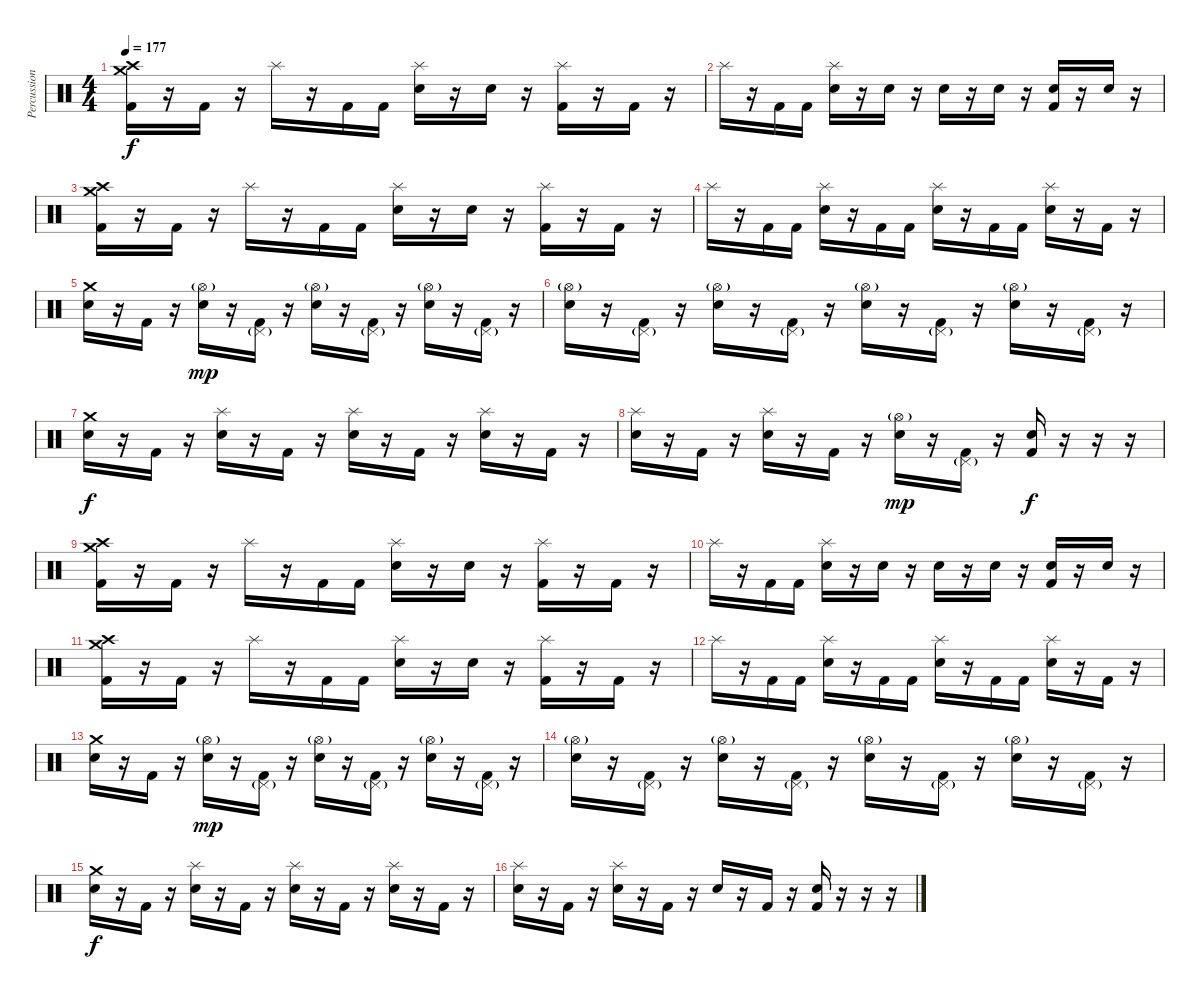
\track ("Percussion" "Percussion") {instrument percussion}
\staff {score}
\articulation defaults
\ts (4 4)
\section ("" "")
\tempo 177
\clef neutral
\ks c
("Crash medium (hit)" "Crash high (hit)" "Kick (hit) 2").16{dy f} r.16 "Kick (hit) 2".16 r.16 "Splash (hit)".16 r.16 "Kick (hit) 2".16 "Kick (hit) 2".16 ("Splash (hit)" "Electric Snare (hit)").16 r.16 "Electric Snare (hit)".16 r.16 ("Splash (hit)" "Kick (hit) 2").16 r.16 "Kick (hit) 2".16 r.16 |
"Splash (hit)".16 r.16 "Kick (hit) 2".16 "Kick (hit) 2".16 ("Splash (hit)" "Electric Snare (hit)").16 r.16 "Electric Snare (hit)".16 r.16 "Electric Snare (hit)".16 r.16 "Electric Snare (hit)".16 r.16 ("Electric Snare (hit)" "Kick (hit) 2").16 r.16 "Electric Snare (hit)".16 r.16 |
("Crash medium (hit)" "Crash high (hit)" "Kick (hit) 2").16 r.16 "Kick (hit) 2".16 r.16 "Splash (hit)".16 r.16 "Kick (hit) 2".16 "Kick (hit) 2".16 ("Splash (hit)" "Electric Snare (hit)").16 r.16 "Electric Snare (hit)".16 r.16 ("Splash (hit)" "Kick (hit) 2").16 r.16 "Kick (hit) 2".16 r.16 |
"Splash (hit)".16 r.16 "Kick (hit) 2".16 "Kick (hit) 2".16 ("Splash (hit)" "Electric Snare (hit)").16 r.16 "Kick (hit) 2".16 "Kick (hit) 2".16 ("Splash (hit)" "Electric Snare (hit)").16 r.16 "Kick (hit) 2".16 "Kick (hit) 2".16 ("Splash (hit)" "Electric Snare (hit)").16 r.16 "Kick (hit) 2".16 r.16 |
("Crash medium (hit)" "Electric Snare (hit)").16 r.16 "Kick (hit) 2".16 r.16 ("Hi-Hat (open)"{g} "Electric Snare (hit)").16{dy mp} r.16 ("Pedal Hi-Hat (hit)"{g} "Kick (hit) 2").16 r.16 ("Hi-Hat (open)"{g} "Electric Snare (hit)").16 r.16 ("Pedal Hi-Hat (hit)"{g} "Kick (hit) 2").16 r.16 ("Hi-Hat (open)"{g} "Electric Snare (hit)").16 r.16 ("Pedal Hi-Hat (hit)"{g} "Kick (hit) 2").16 r.16 |
("Hi-Hat (open)"{g} "Electric Snare (hit)").16 r.16 ("Pedal Hi-Hat (hit)"{g} "Kick (hit) 2").16 r.16 ("Hi-Hat (open)"{g} "Electric Snare (hit)").16 r.16 ("Pedal Hi-Hat (hit)"{g} "Kick (hit) 2").16 r.16 ("Hi-Hat (open)"{g} "Electric Snare (hit)").16 r.16 ("Pedal Hi-Hat (hit)"{g} "Kick (hit) 2").16 r.16 ("Hi-Hat (open)"{g} "Electric Snare (hit)").16 r.16 ("Pedal Hi-Hat (hit)"{g} "Kick (hit) 2").16 r.16 |
("Crash medium (hit)" "Electric Snare (hit)").16{dy f} r.16 "Kick (hit) 2".16 r.16 ("Splash (hit)" "Electric Snare (hit)").16 r.16 "Kick (hit) 2".16 r.16 ("Splash (hit)" "Electric Snare (hit)").16 r.16 "Kick (hit) 2".16 r.16 ("Splash (hit)" "Electric Snare (hit)").16 r.16 "Kick (hit) 2".16 r.16 |
("Splash (hit)" "Electric Snare (hit)").16 r.16 "Kick (hit) 2".16 r.16 ("Splash (hit)" "Electric Snare (hit)").16 r.16 "Kick (hit) 2".16 r.16 ("Hi-Hat (open)"{g} "Electric Snare (hit)").16{dy mp} r.16 ("Pedal Hi-Hat (hit)"{g} "Kick (hit) 2").16 r.16 ("Electric Snare (hit)" "Kick (hit) 2").16{dy f} r.16 r.16 r.16 |
("Crash medium (hit)" "Crash high (hit)" "Kick (hit) 2").16 r.16 "Kick (hit) 2".16 r.16 "Splash (hit)".16 r.16 "Kick (hit) 2".16 "Kick (hit) 2".16 ("Splash (hit)" "Electric Snare (hit)").16 r.16 "Electric Snare (hit)".16 r.16 ("Splash (hit)" "Kick (hit) 2").16 r.16 "Kick (hit) 2".16 r.16 |
"Splash (hit)".16 r.16 "Kick (hit) 2".16 "Kick (hit) 2".16 ("Splash (hit)" "Electric Snare (hit)").16 r.16 "Electric Snare (hit)".16 r.16 "Electric Snare (hit)".16 r.16 "Electric Snare (hit)".16 r.16 ("Electric Snare (hit)" "Kick (hit) 2").16 r.16 "Electric Snare (hit)".16 r.16 |
("Crash medium (hit)" "Crash high (hit)" "Kick (hit) 2").16 r.16 "Kick (hit) 2".16 r.16 "Splash (hit)".16 r.16 "Kick (hit) 2".16 "Kick (hit) 2".16 ("Splash (hit)" "Electric Snare (hit)").16 r.16 "Electric Snare (hit)".16 r.16 ("Splash (hit)" "Kick (hit) 2").16 r.16 "Kick (hit) 2".16 r.16 |
"Splash (hit)".16 r.16 "Kick (hit) 2".16 "Kick (hit) 2".16 ("Splash (hit)" "Electric Snare (hit)").16 r.16 "Kick (hit) 2".16 "Kick (hit) 2".16 ("Splash (hit)" "Electric Snare (hit)").16 r.16 "Kick (hit) 2".16 "Kick (hit) 2".16 ("Splash (hit)" "Electric Snare (hit)").16 r.16 "Kick (hit) 2".16 r.16 |
("Crash medium (hit)" "Electric Snare (hit)").16 r.16 "Kick (hit) 2".16 r.16 ("Hi-Hat (open)"{g} "Electric Snare (hit)").16{dy mp} r.16 ("Pedal Hi-Hat (hit)"{g} "Kick (hit) 2").16 r.16 ("Hi-Hat (open)"{g} "Electric Snare (hit)").16 r.16 ("Pedal Hi-Hat (hit)"{g} "Kick (hit) 2").16 r.16 ("Hi-Hat (open)"{g} "Electric Snare (hit)").16 r.16 ("Pedal Hi-Hat (hit)"{g} "Kick (hit) 2").16 r.16 |
("Hi-Hat (open)"{g} "Electric Snare (hit)").16 r.16 ("Pedal Hi-Hat (hit)"{g} "Kick (hit) 2").16 r.16 ("Hi-Hat (open)"{g} "Electric Snare (hit)").16 r.16 ("Pedal Hi-Hat (hit)"{g} "Kick (hit) 2").16 r.16 ("Hi-Hat (open)"{g} "Electric Snare (hit)").16 r.16 ("Pedal Hi-Hat (hit)"{g} "Kick (hit) 2").16 r.16 ("Hi-Hat (open)"{g} "Electric Snare (hit)").16 r.16 ("Pedal Hi-Hat (hit)"{g} "Kick (hit) 2").16 r.16 |
("Crash medium (hit)" "Electric Snare (hit)").16{dy f} r.16 "Kick (hit) 2".16 r.16 ("Splash (hit)" "Electric Snare (hit)").16 r.16 "Kick (hit) 2".16 r.16 ("Splash (hit)" "Electric Snare (hit)").16 r.16 "Kick (hit) 2".16 r.16 ("Splash (hit)" "Electric Snare (hit)").16 r.16 "Kick (hit) 2".16 r.16 |
("Splash (hit)" "Electric Snare (hit)").16 r.16 "Kick (hit) 2".16 r.16 ("Splash (hit)" "Electric Snare (hit)").16 r.16 "Kick (hit) 2".16 r.16 "Electric Snare (hit)".16 r.16 "Kick (hit) 2".16 r.16 ("Electric Snare (hit)" "Kick (hit) 2").16 r.16 r.16 r.16
